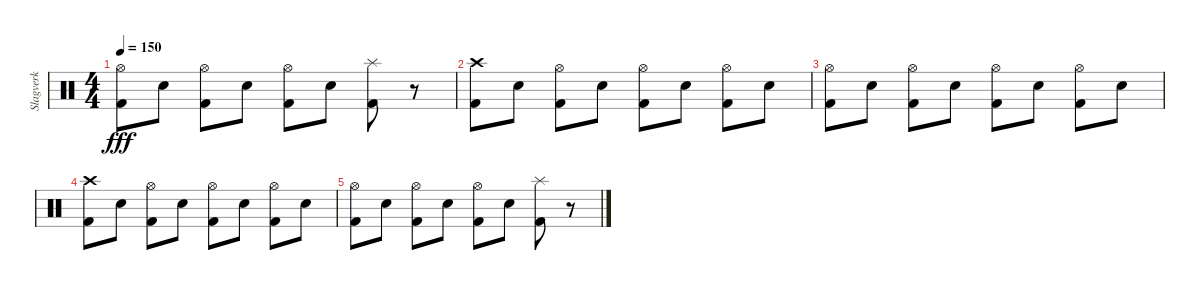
\track ("Slagverk" "Slagverk") {instrument percussion}
\staff {score}
\articulation defaults
\ts (4 4)
\tempo 150
\clef neutral
\ks c
("Hi-Hat (open)" "Kick (hit) 2").8{dy fff} "Electric Snare (hit)".8 ("Hi-Hat (open)" "Kick (hit) 2").8 "Electric Snare (hit)".8 ("Hi-Hat (open)" "Kick (hit) 2").8 "Electric Snare (hit)".8 ("Splash (hit)" "Kick (hit) 2").8 r.8 |
("Crash high (hit)" "Kick (hit) 2").8 "Electric Snare (hit)".8 ("Hi-Hat (open)" "Kick (hit) 2").8 "Electric Snare (hit)".8 ("Hi-Hat (open)" "Kick (hit) 2").8 "Electric Snare (hit)".8 ("Hi-Hat (open)" "Kick (hit) 2").8 "Electric Snare (hit)".8 |
("Hi-Hat (open)" "Kick (hit) 2").8 "Electric Snare (hit)".8 ("Hi-Hat (open)" "Kick (hit) 2").8 "Electric Snare (hit)".8 ("Hi-Hat (open)" "Kick (hit) 2").8 "Electric Snare (hit)".8 ("Hi-Hat (open)" "Kick (hit) 2").8 "Electric Snare (hit)".8 |
("Crash high (hit)" "Kick (hit) 2").8 "Electric Snare (hit)".8 ("Hi-Hat (open)" "Kick (hit) 2").8 "Electric Snare (hit)".8 ("Hi-Hat (open)" "Kick (hit) 2").8 "Electric Snare (hit)".8 ("Hi-Hat (open)" "Kick (hit) 2").8 "Electric Snare (hit)".8 |
("Hi-Hat (open)" "Kick (hit) 2").8 "Electric Snare (hit)".8 ("Hi-Hat (open)" "Kick (hit) 2").8 "Electric Snare (hit)".8 ("Hi-Hat (open)" "Kick (hit) 2").8 "Electric Snare (hit)".8 ("Splash (hit)" "Kick (hit) 2").8 r.8
